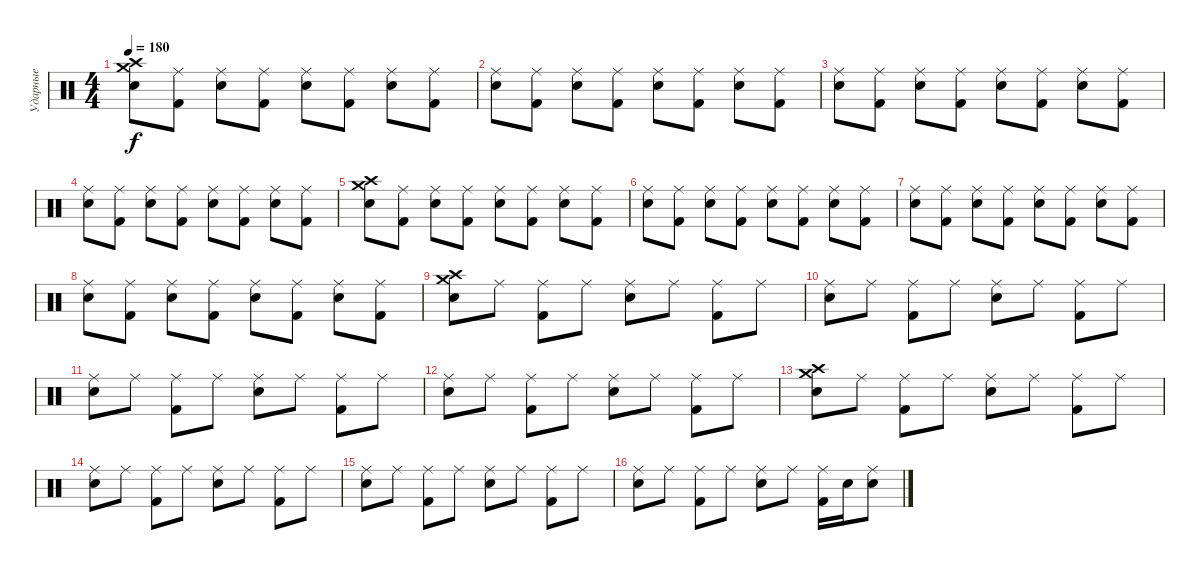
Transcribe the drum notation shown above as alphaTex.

\track ("Ударные" "Ударные") {instrument percussion}
\staff {score}
\articulation defaults
\ts (4 4)
\tempo 180
\clef neutral
\ks c
("Crash high (hit)" "Snare (hit) 2" "Crash medium (hit)").8{dy f} ("Ride (middle)" "Kick (hit) 2").8 ("Ride (middle)" "Snare (hit) 2").8 ("Ride (middle)" "Kick (hit) 2").8 ("Ride (middle)" "Snare (hit) 2").8 ("Ride (middle)" "Kick (hit) 2").8 ("Ride (middle)" "Snare (hit) 2").8 ("Ride (middle)" "Kick (hit) 2").8 |
("Ride (middle)" "Snare (hit) 2").8 ("Ride (middle)" "Kick (hit) 2").8 ("Ride (middle)" "Snare (hit) 2").8 ("Ride (middle)" "Kick (hit) 2").8 ("Ride (middle)" "Snare (hit) 2").8 ("Ride (middle)" "Kick (hit) 2").8 ("Ride (middle)" "Snare (hit) 2").8 ("Ride (middle)" "Kick (hit) 2").8 |
("Ride (middle)" "Snare (hit) 2").8 ("Ride (middle)" "Kick (hit) 2").8 ("Ride (middle)" "Snare (hit) 2").8 ("Ride (middle)" "Kick (hit) 2").8 ("Ride (middle)" "Snare (hit) 2").8 ("Ride (middle)" "Kick (hit) 2").8 ("Ride (middle)" "Snare (hit) 2").8 ("Ride (middle)" "Kick (hit) 2").8 |
("Ride (middle)" "Snare (hit) 2").8 ("Ride (middle)" "Kick (hit) 2").8 ("Ride (middle)" "Snare (hit) 2").8 ("Ride (middle)" "Kick (hit) 2").8 ("Ride (middle)" "Snare (hit) 2").8 ("Ride (middle)" "Kick (hit) 2").8 ("Ride (middle)" "Snare (hit) 2").8 ("Ride (middle)" "Kick (hit) 2").8 |
("Crash high (hit)" "Snare (hit) 2" "Crash medium (hit)").8 ("Ride (middle)" "Kick (hit) 2").8 ("Ride (middle)" "Snare (hit) 2").8 ("Ride (middle)" "Kick (hit) 2").8 ("Ride (middle)" "Snare (hit) 2").8 ("Ride (middle)" "Kick (hit) 2").8 ("Ride (middle)" "Snare (hit) 2").8 ("Ride (middle)" "Kick (hit) 2").8 |
("Ride (middle)" "Snare (hit) 2").8 ("Ride (middle)" "Kick (hit) 2").8 ("Ride (middle)" "Snare (hit) 2").8 ("Ride (middle)" "Kick (hit) 2").8 ("Ride (middle)" "Snare (hit) 2").8 ("Ride (middle)" "Kick (hit) 2").8 ("Ride (middle)" "Snare (hit) 2").8 ("Ride (middle)" "Kick (hit) 2").8 |
("Ride (middle)" "Snare (hit) 2").8 ("Ride (middle)" "Kick (hit) 2").8 ("Ride (middle)" "Snare (hit) 2").8 ("Ride (middle)" "Kick (hit) 2").8 ("Ride (middle)" "Snare (hit) 2").8 ("Ride (middle)" "Kick (hit) 2").8 ("Ride (middle)" "Snare (hit) 2").8 ("Ride (middle)" "Kick (hit) 2").8 |
("Ride (middle)" "Snare (hit) 2").8 ("Ride (middle)" "Kick (hit) 2").8 ("Ride (middle)" "Snare (hit) 2").8 ("Ride (middle)" "Kick (hit) 2").8 ("Ride (middle)" "Snare (hit) 2").8 ("Ride (middle)" "Kick (hit) 2").8 ("Ride (middle)" "Snare (hit) 2").8 ("Ride (middle)" "Kick (hit) 2").8 |
("Crash high (hit)" "Snare (hit) 2" "Crash medium (hit)").8 "Ride (middle)".8 ("Ride (middle)" "Kick (hit) 2").8 "Ride (middle)".8 ("Ride (middle)" "Snare (hit) 2").8 "Ride (middle)".8 ("Ride (middle)" "Kick (hit) 2").8 "Ride (middle)".8 |
("Ride (middle)" "Snare (hit) 2").8 "Ride (middle)".8 ("Ride (middle)" "Kick (hit) 2").8 "Ride (middle)".8 ("Ride (middle)" "Snare (hit) 2").8 "Ride (middle)".8 ("Ride (middle)" "Kick (hit) 2").8 "Ride (middle)".8 |
("Ride (middle)" "Snare (hit) 2").8 "Ride (middle)".8 ("Ride (middle)" "Kick (hit) 2").8 "Ride (middle)".8 ("Ride (middle)" "Snare (hit) 2").8 "Ride (middle)".8 ("Ride (middle)" "Kick (hit) 2").8 "Ride (middle)".8 |
("Ride (middle)" "Snare (hit) 2").8 "Ride (middle)".8 ("Ride (middle)" "Kick (hit) 2").8 "Ride (middle)".8 ("Ride (middle)" "Snare (hit) 2").8 "Ride (middle)".8 ("Ride (middle)" "Kick (hit) 2").8 "Ride (middle)".8 |
("Crash high (hit)" "Snare (hit) 2" "Crash medium (hit)").8 "Ride (middle)".8 ("Ride (middle)" "Kick (hit) 2").8 "Ride (middle)".8 ("Ride (middle)" "Snare (hit) 2").8 "Ride (middle)".8 ("Ride (middle)" "Kick (hit) 2").8 "Ride (middle)".8 |
("Ride (middle)" "Snare (hit) 2").8 "Ride (middle)".8 ("Ride (middle)" "Kick (hit) 2").8 "Ride (middle)".8 ("Ride (middle)" "Snare (hit) 2").8 "Ride (middle)".8 ("Ride (middle)" "Kick (hit) 2").8 "Ride (middle)".8 |
("Ride (middle)" "Snare (hit) 2").8 "Ride (middle)".8 ("Ride (middle)" "Kick (hit) 2").8 "Ride (middle)".8 ("Ride (middle)" "Snare (hit) 2").8 "Ride (middle)".8 ("Ride (middle)" "Kick (hit) 2").8 "Ride (middle)".8 |
("Ride (middle)" "Snare (hit) 2").8 "Ride (middle)".8 ("Ride (middle)" "Kick (hit) 2").8 "Ride (middle)".8 ("Ride (middle)" "Snare (hit) 2").8 "Ride (middle)".8 ("Ride (middle)" "Kick (hit) 2").16 "Snare (hit) 2".16 ("Ride (middle)" "Snare (hit) 2").8
